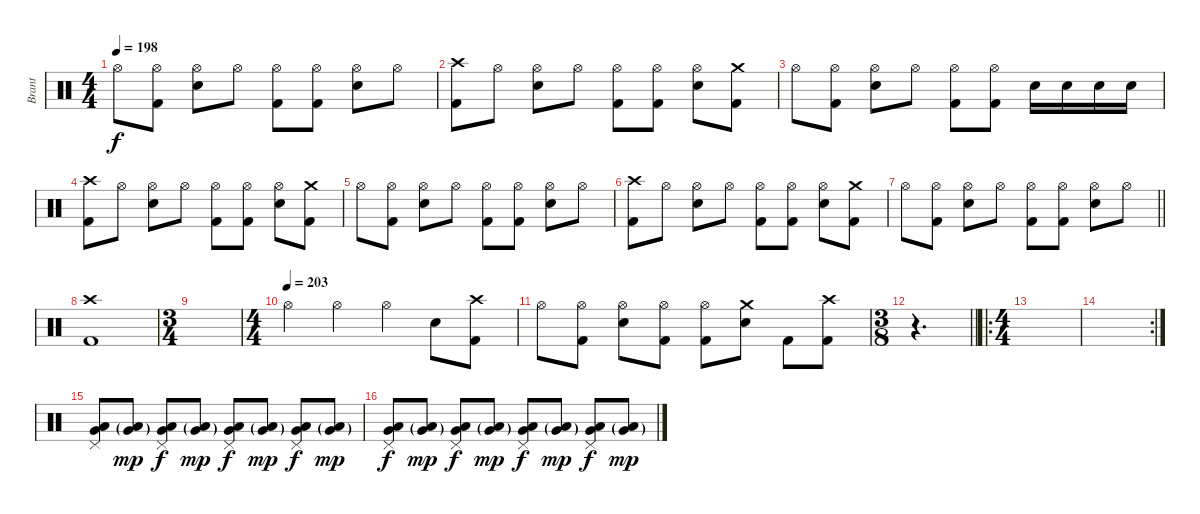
\track ("Brant" "Brant") {instrument percussion}
\staff {score}
\articulation defaults
\ts (4 4)
\tempo 198
\clef neutral
\ks c "Hi-Hat (open)".8{dy f}
("Hi-Hat (open)" "Kick (hit) 2").8 ("Hi-Hat (open)" "Electric Snare (hit)").8 "Hi-Hat (open)".8 ("Hi-Hat (open)" "Kick (hit) 2").8 ("Hi-Hat (open)" "Kick (hit) 2").8 ("Hi-Hat (open)" "Electric Snare (hit)").8 "Hi-Hat (open)".8 |
("Crash high (hit)" "Kick (hit) 2").8 "Hi-Hat (open)".8 ("Hi-Hat (open)" "Electric Snare (hit)").8 "Hi-Hat (open)".8 ("Hi-Hat (open)" "Kick (hit) 2").8 ("Hi-Hat (open)" "Kick (hit) 2").8 ("Hi-Hat (open)" "Electric Snare (hit)").8 ("Crash medium (hit)" "Kick (hit) 2").8 |
"Hi-Hat (open)".8 ("Hi-Hat (open)" "Kick (hit) 2").8 ("Hi-Hat (open)" "Electric Snare (hit)").8 "Hi-Hat (open)".8 ("Hi-Hat (open)" "Kick (hit) 2").8 ("Hi-Hat (open)" "Kick (hit) 2").8 "Electric Snare (hit)".16 "Electric Snare (hit)".16 "Electric Snare (hit)".16 "Electric Snare (hit)".16 |
("Crash high (hit)" "Kick (hit) 2").8 "Hi-Hat (open)".8 ("Hi-Hat (open)" "Electric Snare (hit)").8 "Hi-Hat (open)".8 ("Hi-Hat (open)" "Kick (hit) 2").8 ("Hi-Hat (open)" "Kick (hit) 2").8 ("Hi-Hat (open)" "Electric Snare (hit)").8 ("Crash medium (hit)" "Kick (hit) 2").8 |
"Hi-Hat (open)".8 ("Hi-Hat (open)" "Kick (hit) 2").8 ("Hi-Hat (open)" "Electric Snare (hit)").8 "Hi-Hat (open)".8 ("Hi-Hat (open)" "Kick (hit) 2").8 ("Hi-Hat (open)" "Kick (hit) 2").8 ("Hi-Hat (open)" "Electric Snare (hit)").8 "Hi-Hat (open)".8 |
("Crash high (hit)" "Kick (hit) 2").8 "Hi-Hat (open)".8 ("Hi-Hat (open)" "Electric Snare (hit)").8 "Hi-Hat (open)".8 ("Hi-Hat (open)" "Kick (hit) 2").8 ("Hi-Hat (open)" "Kick (hit) 2").8 ("Hi-Hat (open)" "Electric Snare (hit)").8 ("Crash medium (hit)" "Kick (hit) 2").8 |
\barLineRight lightlight "Hi-Hat (open)".8
("Hi-Hat (open)" "Kick (hit) 2").8 ("Hi-Hat (open)" "Electric Snare (hit)").8 "Hi-Hat (open)".8 ("Hi-Hat (open)" "Kick (hit) 2").8 ("Hi-Hat (open)" "Kick (hit) 2").8 ("Hi-Hat (open)" "Electric Snare (hit)").8 "Hi-Hat (open)".8 |
("Crash high (hit)" "Kick (hit) 2").1 |
\ts (3 4)
|
\ts (4 4)
\tempo (203)
"Hi-Hat (open)".4 "Hi-Hat (open)".4 "Hi-Hat (open)".4 "Electric Snare (hit)".8 ("Crash high (hit)" "Kick (hit) 2").8 |
"Hi-Hat (open)".8 ("Hi-Hat (open)" "Kick (hit) 2").8 ("Hi-Hat (open)" "Electric Snare (hit)").8 ("Hi-Hat (open)" "Kick (hit) 2").8 ("Hi-Hat (open)" "Kick (hit) 2").8 ("Crash medium (hit)" "Electric Snare (hit)").8 "Kick (hit) 2".8 ("Crash high (hit)" "Kick (hit) 2").8 |
\ts (3 8)
\barLineRight lightlight
r.4{d} |
\ro
\ts (4 4)
\section ("" "")
|
\rc 2
|
("Pedal Hi-Hat (hit)" "Very Low Tom (hit)" "Low Floor Tom (hit)").8 ("Very Low Tom (hit)"{g} "Low Floor Tom (hit)"{g}).8{dy mp} ("Pedal Hi-Hat (hit)" "Very Low Tom (hit)" "Low Floor Tom (hit)").8{dy f} ("Very Low Tom (hit)"{g} "Low Floor Tom (hit)"{g}).8{dy mp} ("Pedal Hi-Hat (hit)" "Very Low Tom (hit)" "Low Floor Tom (hit)").8{dy f} ("Very Low Tom (hit)"{g} "Low Floor Tom (hit)"{g}).8{dy mp} ("Pedal Hi-Hat (hit)" "Very Low Tom (hit)" "Low Floor Tom (hit)").8{dy f} ("Very Low Tom (hit)"{g} "Low Floor Tom (hit)"{g}).8{dy mp} |
("Pedal Hi-Hat (hit)" "Very Low Tom (hit)" "Low Floor Tom (hit)").8{dy f} ("Very Low Tom (hit)"{g} "Low Floor Tom (hit)"{g}).8{dy mp} ("Pedal Hi-Hat (hit)" "Very Low Tom (hit)" "Low Floor Tom (hit)").8{dy f} ("Very Low Tom (hit)"{g} "Low Floor Tom (hit)"{g}).8{dy mp} ("Pedal Hi-Hat (hit)" "Very Low Tom (hit)" "Low Floor Tom (hit)").8{dy f} ("Very Low Tom (hit)"{g} "Low Floor Tom (hit)"{g}).8{dy mp} ("Pedal Hi-Hat (hit)" "Very Low Tom (hit)" "Low Floor Tom (hit)").8{dy f} ("Very Low Tom (hit)"{g} "Low Floor Tom (hit)"{g}).8{dy mp}
